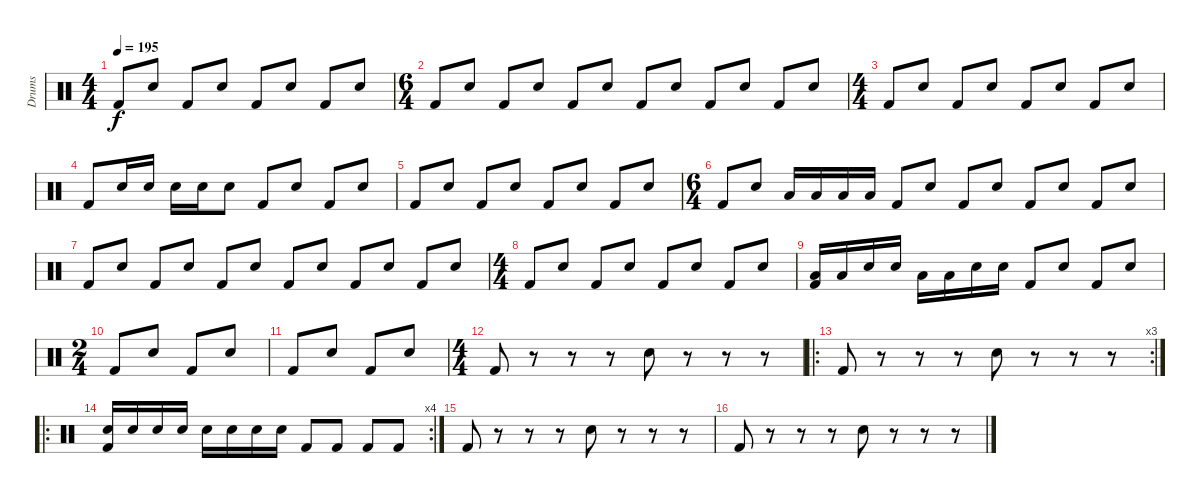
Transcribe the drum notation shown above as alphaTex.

\track ("Drums" "Drums") {instrument percussion}
\staff {score}
\articulation defaults
\ts (4 4)
\tempo 195
\clef neutral
\ks c "Kick (hit) 2".8{dy f} "Electric Snare (hit)".8 "Kick (hit) 2".8 "Electric Snare (hit)".8 "Kick (hit) 2".8 "Electric Snare (hit)".8 "Kick (hit) 2".8 "Electric Snare (hit)".8
|
\ts (6 4)
"Kick (hit) 2".8 "Electric Snare (hit)".8 "Kick (hit) 2".8 "Electric Snare (hit)".8 "Kick (hit) 2".8 "Electric Snare (hit)".8 "Kick (hit) 2".8 "Electric Snare (hit)".8 "Kick (hit) 2".8 "Electric Snare (hit)".8 "Kick (hit) 2".8 "Electric Snare (hit)".8 |
\ts (4 4)
"Kick (hit) 2".8 "Electric Snare (hit)".8 "Kick (hit) 2".8 "Electric Snare (hit)".8 "Kick (hit) 2".8 "Electric Snare (hit)".8 "Kick (hit) 2".8 "Electric Snare (hit)".8 |
"Kick (hit) 2".8 "Electric Snare (hit)".16 "Electric Snare (hit)".16 "Electric Snare (hit)".16 "Electric Snare (hit)".16 "Electric Snare (hit)".8 "Kick (hit) 2".8 "Electric Snare (hit)".8 "Kick (hit) 2".8 "Electric Snare (hit)".8 |
"Kick (hit) 2".8 "Electric Snare (hit)".8 "Kick (hit) 2".8 "Electric Snare (hit)".8 "Kick (hit) 2".8 "Electric Snare (hit)".8 "Kick (hit) 2".8 "Electric Snare (hit)".8 |
\ts (6 4)
"Kick (hit) 2".8 "Electric Snare (hit)".8 "Low Tom (hit)".16 "Low Tom (hit)".16 "Low Tom (hit)".16 "Low Tom (hit)".16 "Kick (hit) 2".8 "Electric Snare (hit)".8 "Kick (hit) 2".8 "Electric Snare (hit)".8 "Kick (hit) 2".8 "Electric Snare (hit)".8 "Kick (hit) 2".8 "Electric Snare (hit)".8 |
"Kick (hit) 2".8 "Electric Snare (hit)".8 "Kick (hit) 2".8 "Electric Snare (hit)".8 "Kick (hit) 2".8 "Electric Snare (hit)".8 "Kick (hit) 2".8 "Electric Snare (hit)".8 "Kick (hit) 2".8 "Electric Snare (hit)".8 "Kick (hit) 2".8 "Electric Snare (hit)".8 |
\ts (4 4)
"Kick (hit) 2".8 "Electric Snare (hit)".8 "Kick (hit) 2".8 "Electric Snare (hit)".8 "Kick (hit) 2".8 "Electric Snare (hit)".8 "Kick (hit) 2".8 "Electric Snare (hit)".8 |
("Low Tom (hit)" "Kick (hit) 2").16 "Low Tom (hit)".16 "Electric Snare (hit)".16 "Electric Snare (hit)".16 "Low Tom (hit)".16 "Low Tom (hit)".16 "Electric Snare (hit)".16 "Electric Snare (hit)".16 "Kick (hit) 2".8 "Electric Snare (hit)".8 "Kick (hit) 2".8 "Electric Snare (hit)".8 |
\ts (2 4)
"Kick (hit) 2".8 "Electric Snare (hit)".8 "Kick (hit) 2".8 "Electric Snare (hit)".8 |
"Kick (hit) 2".8 "Electric Snare (hit)".8 "Kick (hit) 2".8 "Electric Snare (hit)".8 |
\ts (4 4)
"Kick (hit) 2".8 r.8 r.8 r.8 "Electric Snare (hit)".8 r.8 r.8 r.8 |
\ro
\rc 3 "Kick (hit) 2".8
r.8 r.8 r.8 "Electric Snare (hit)".8 r.8 r.8 r.8 |
\ro
\rc 4
("Electric Snare (hit)" "Kick (hit) 2").16 "Electric Snare (hit)".16 "Electric Snare (hit)".16 "Electric Snare (hit)".16 "Electric Snare (hit)".16 "Electric Snare (hit)".16 "Electric Snare (hit)".16 "Electric Snare (hit)".16 "Kick (hit) 2".8 "Kick (hit) 2".8 "Kick (hit) 2".8 "Kick (hit) 2".8 |
"Kick (hit) 2".8 r.8 r.8 r.8 "Electric Snare (hit)".8 r.8 r.8 r.8 |
"Kick (hit) 2".8 r.8 r.8 r.8 "Electric Snare (hit)".8 r.8 r.8 r.8
